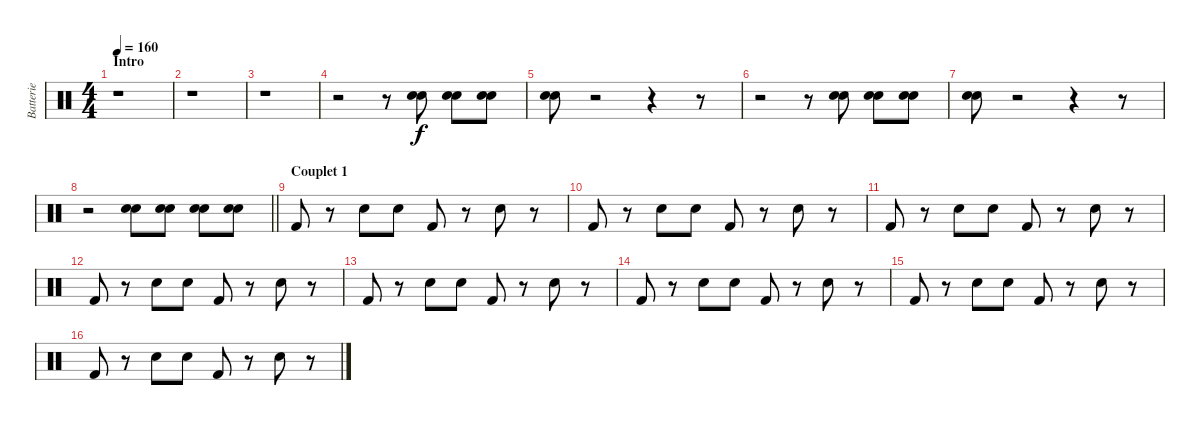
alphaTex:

\track ("Batterie" "Batterie") {instrument percussion}
\staff {score}
\articulation defaults
\ts (4 4)
\section ("" "Intro")
\tempo 160
\clef neutral
\ks c
r.1{dy f} |
r.1 |
r.1 |
r.2 r.8 ("Snare (hit) 2" "Snare (hit) 2").8 ("Snare (hit) 2" "Snare (hit) 2").8 ("Snare (hit) 2" "Snare (hit) 2").8 |
("Snare (hit) 2" "Snare (hit) 2").8 r.2 r.4 r.8 |
r.2 r.8 ("Snare (hit) 2" "Snare (hit) 2").8 ("Snare (hit) 2" "Snare (hit) 2").8 ("Snare (hit) 2" "Snare (hit) 2").8 |
("Snare (hit) 2" "Snare (hit) 2").8 r.2 r.4 r.8 |
\barLineRight lightlight
r.2 ("Snare (hit) 2" "Snare (hit) 2").8 ("Snare (hit) 2" "Snare (hit) 2").8 ("Snare (hit) 2" "Snare (hit) 2").8 ("Snare (hit) 2" "Snare (hit) 2").8 |
\section ("" "Couplet 1")
"Kick (hit) 2".8 r.8 "Snare (hit) 2".8 "Snare (hit) 2".8 "Kick (hit) 2".8 r.8 "Snare (hit) 2".8 r.8 |
"Kick (hit) 2".8 r.8 "Snare (hit) 2".8 "Snare (hit) 2".8 "Kick (hit) 2".8 r.8 "Snare (hit) 2".8 r.8 |
"Kick (hit) 2".8 r.8 "Snare (hit) 2".8 "Snare (hit) 2".8 "Kick (hit) 2".8 r.8 "Snare (hit) 2".8 r.8 |
"Kick (hit) 2".8 r.8 "Snare (hit) 2".8 "Snare (hit) 2".8 "Kick (hit) 2".8 r.8 "Snare (hit) 2".8 r.8 |
"Kick (hit) 2".8 r.8 "Snare (hit) 2".8 "Snare (hit) 2".8 "Kick (hit) 2".8 r.8 "Snare (hit) 2".8 r.8 |
"Kick (hit) 2".8 r.8 "Snare (hit) 2".8 "Snare (hit) 2".8 "Kick (hit) 2".8 r.8 "Snare (hit) 2".8 r.8 |
"Kick (hit) 2".8 r.8 "Snare (hit) 2".8 "Snare (hit) 2".8 "Kick (hit) 2".8 r.8 "Snare (hit) 2".8 r.8 |
"Kick (hit) 2".8 r.8 "Snare (hit) 2".8 "Snare (hit) 2".8 "Kick (hit) 2".8 r.8 "Snare (hit) 2".8 r.8
